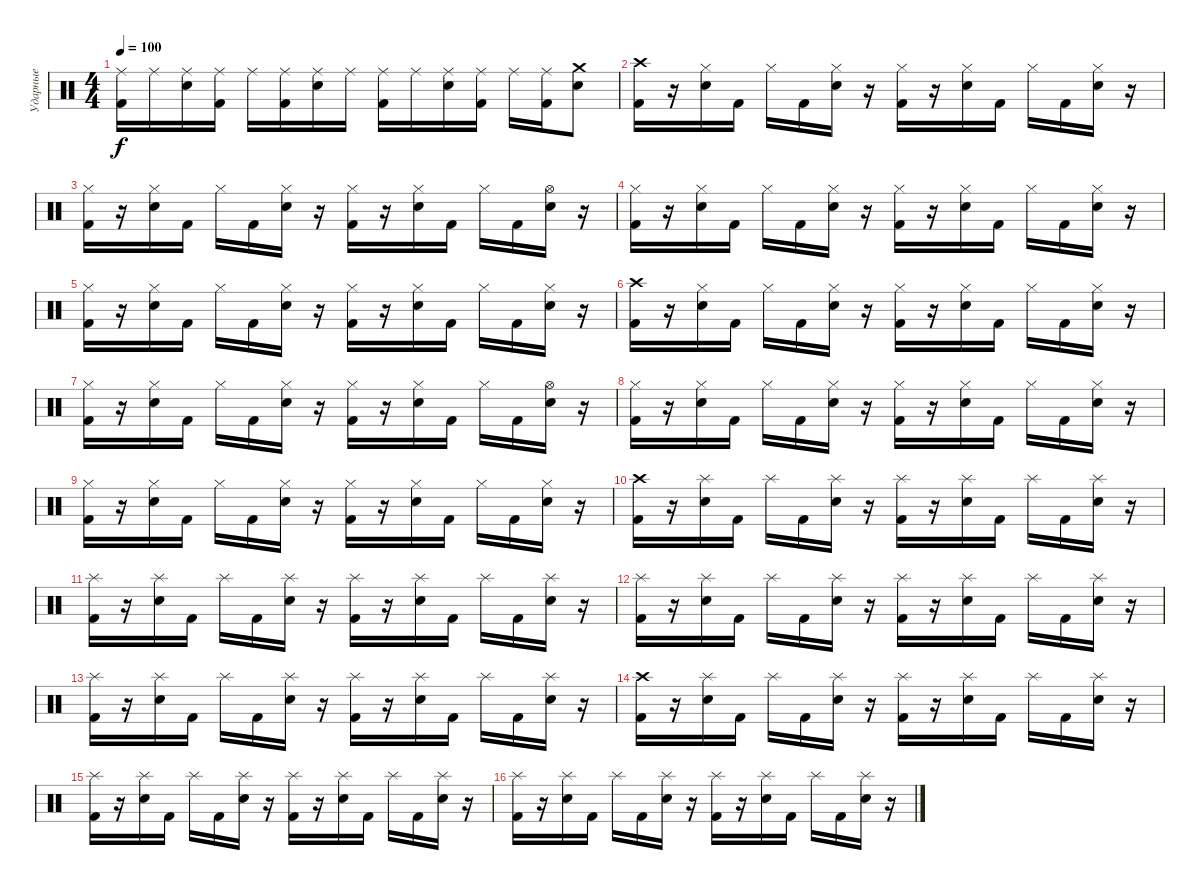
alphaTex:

\track ("Ударные" "Ударные") {instrument percussion}
\staff {score}
\articulation defaults
\ts (4 4)
\tempo 100
\clef neutral
\ks c
("Ride (middle)" "Kick (hit) 2").16{dy f} "Ride (middle)".16 ("Ride (middle)" "Electric Snare (hit)").16 ("Ride (middle)" "Kick (hit) 2").16 "Ride (middle)".16 ("Ride (middle)" "Kick (hit) 2").16 ("Ride (middle)" "Electric Snare (hit)").16 "Ride (middle)".16 ("Ride (middle)" "Kick (hit) 2").16 "Ride (middle)".16 ("Ride (middle)" "Electric Snare (hit)").16 ("Ride (middle)" "Kick (hit) 2").16 "Ride (middle)".16 ("Ride (middle)" "Kick (hit) 2").16 ("Crash medium (hit)" "Electric Snare (hit)").8 |
("Crash high (hit)" "Kick (hit) 2").16 r.16 ("Hi-Hat (closed)" "Electric Snare (hit)").16 "Kick (hit) 2".16 "Hi-Hat (closed)".16 "Kick (hit) 2".16 ("Hi-Hat (closed)" "Electric Snare (hit)").16 r.16 ("Hi-Hat (closed)" "Kick (hit) 2").16 r.16 ("Hi-Hat (closed)" "Electric Snare (hit)").16 "Kick (hit) 2".16 "Hi-Hat (closed)".16 "Kick (hit) 2".16 ("Hi-Hat (closed)" "Electric Snare (hit)").16 r.16 |
("Hi-Hat (closed)" "Kick (hit) 2").16 r.16 ("Hi-Hat (closed)" "Electric Snare (hit)").16 "Kick (hit) 2".16 "Hi-Hat (closed)".16 "Kick (hit) 2".16 ("Hi-Hat (closed)" "Electric Snare (hit)").16 r.16 ("Hi-Hat (closed)" "Kick (hit) 2").16 r.16 ("Hi-Hat (closed)" "Electric Snare (hit)").16 "Kick (hit) 2".16 "Hi-Hat (closed)".16 "Kick (hit) 2".16 ("Hi-Hat (open)" "Electric Snare (hit)").16 r.16 |
("Hi-Hat (closed)" "Kick (hit) 2").16 r.16 ("Hi-Hat (closed)" "Electric Snare (hit)").16 "Kick (hit) 2".16 "Hi-Hat (closed)".16 "Kick (hit) 2".16 ("Hi-Hat (closed)" "Electric Snare (hit)").16 r.16 ("Hi-Hat (closed)" "Kick (hit) 2").16 r.16 ("Hi-Hat (closed)" "Electric Snare (hit)").16 "Kick (hit) 2".16 "Hi-Hat (closed)".16 "Kick (hit) 2".16 ("Hi-Hat (closed)" "Electric Snare (hit)").16 r.16 |
("Hi-Hat (closed)" "Kick (hit) 2").16 r.16 ("Hi-Hat (closed)" "Electric Snare (hit)").16 "Kick (hit) 2".16 "Hi-Hat (closed)".16 "Kick (hit) 2".16 ("Hi-Hat (closed)" "Electric Snare (hit)").16 r.16 ("Hi-Hat (closed)" "Kick (hit) 2").16 r.16 ("Hi-Hat (closed)" "Electric Snare (hit)").16 "Kick (hit) 2".16 "Hi-Hat (closed)".16 "Kick (hit) 2".16 ("Hi-Hat (closed)" "Electric Snare (hit)").16 r.16 |
("Crash high (hit)" "Kick (hit) 2").16 r.16 ("Hi-Hat (closed)" "Electric Snare (hit)").16 "Kick (hit) 2".16 "Hi-Hat (closed)".16 "Kick (hit) 2".16 ("Hi-Hat (closed)" "Electric Snare (hit)").16 r.16 ("Hi-Hat (closed)" "Kick (hit) 2").16 r.16 ("Hi-Hat (closed)" "Electric Snare (hit)").16 "Kick (hit) 2".16 "Hi-Hat (closed)".16 "Kick (hit) 2".16 ("Hi-Hat (closed)" "Electric Snare (hit)").16 r.16 |
("Hi-Hat (closed)" "Kick (hit) 2").16 r.16 ("Hi-Hat (closed)" "Electric Snare (hit)").16 "Kick (hit) 2".16 "Hi-Hat (closed)".16 "Kick (hit) 2".16 ("Hi-Hat (closed)" "Electric Snare (hit)").16 r.16 ("Hi-Hat (closed)" "Kick (hit) 2").16 r.16 ("Hi-Hat (closed)" "Electric Snare (hit)").16 "Kick (hit) 2".16 "Hi-Hat (closed)".16 "Kick (hit) 2".16 ("Hi-Hat (open)" "Electric Snare (hit)").16 r.16 |
("Hi-Hat (closed)" "Kick (hit) 2").16 r.16 ("Hi-Hat (closed)" "Electric Snare (hit)").16 "Kick (hit) 2".16 "Hi-Hat (closed)".16 "Kick (hit) 2".16 ("Hi-Hat (closed)" "Electric Snare (hit)").16 r.16 ("Hi-Hat (closed)" "Kick (hit) 2").16 r.16 ("Hi-Hat (closed)" "Electric Snare (hit)").16 "Kick (hit) 2".16 "Hi-Hat (closed)".16 "Kick (hit) 2".16 ("Hi-Hat (closed)" "Electric Snare (hit)").16 r.16 |
("Hi-Hat (closed)" "Kick (hit) 2").16 r.16 ("Hi-Hat (closed)" "Electric Snare (hit)").16 "Kick (hit) 2".16 "Hi-Hat (closed)".16 "Kick (hit) 2".16 ("Hi-Hat (closed)" "Electric Snare (hit)").16 r.16 ("Hi-Hat (closed)" "Kick (hit) 2").16 r.16 ("Hi-Hat (closed)" "Electric Snare (hit)").16 "Kick (hit) 2".16 "Hi-Hat (closed)".16 "Kick (hit) 2".16 ("Hi-Hat (closed)" "Electric Snare (hit)").16 r.16 |
("Crash high (hit)" "Kick (hit) 2").16 r.16 ("Splash (hit)" "Electric Snare (hit)").16 "Kick (hit) 2".16 "Splash (hit)".16 "Kick (hit) 2".16 ("Splash (hit)" "Electric Snare (hit)").16 r.16 ("Splash (hit)" "Kick (hit) 2").16 r.16 ("Splash (hit)" "Electric Snare (hit)").16 "Kick (hit) 2".16 "Splash (hit)".16 "Kick (hit) 2".16 ("Splash (hit)" "Electric Snare (hit)").16 r.16 |
("Splash (hit)" "Kick (hit) 2").16 r.16 ("Splash (hit)" "Electric Snare (hit)").16 "Kick (hit) 2".16 "Splash (hit)".16 "Kick (hit) 2".16 ("Splash (hit)" "Electric Snare (hit)").16 r.16 ("Splash (hit)" "Kick (hit) 2").16 r.16 ("Splash (hit)" "Electric Snare (hit)").16 "Kick (hit) 2".16 "Splash (hit)".16 "Kick (hit) 2".16 ("Splash (hit)" "Electric Snare (hit)").16 r.16 |
("Splash (hit)" "Kick (hit) 2").16 r.16 ("Splash (hit)" "Electric Snare (hit)").16 "Kick (hit) 2".16 "Splash (hit)".16 "Kick (hit) 2".16 ("Splash (hit)" "Electric Snare (hit)").16 r.16 ("Splash (hit)" "Kick (hit) 2").16 r.16 ("Splash (hit)" "Electric Snare (hit)").16 "Kick (hit) 2".16 "Splash (hit)".16 "Kick (hit) 2".16 ("Splash (hit)" "Electric Snare (hit)").16 r.16 |
("Splash (hit)" "Kick (hit) 2").16 r.16 ("Splash (hit)" "Electric Snare (hit)").16 "Kick (hit) 2".16 "Splash (hit)".16 "Kick (hit) 2".16 ("Splash (hit)" "Electric Snare (hit)").16 r.16 ("Splash (hit)" "Kick (hit) 2").16 r.16 ("Splash (hit)" "Electric Snare (hit)").16 "Kick (hit) 2".16 "Splash (hit)".16 "Kick (hit) 2".16 ("Splash (hit)" "Electric Snare (hit)").16 r.16 |
("Crash high (hit)" "Kick (hit) 2").16 r.16 ("Splash (hit)" "Electric Snare (hit)").16 "Kick (hit) 2".16 "Splash (hit)".16 "Kick (hit) 2".16 ("Splash (hit)" "Electric Snare (hit)").16 r.16 ("Splash (hit)" "Kick (hit) 2").16 r.16 ("Splash (hit)" "Electric Snare (hit)").16 "Kick (hit) 2".16 "Splash (hit)".16 "Kick (hit) 2".16 ("Splash (hit)" "Electric Snare (hit)").16 r.16 |
("Splash (hit)" "Kick (hit) 2").16 r.16 ("Splash (hit)" "Electric Snare (hit)").16 "Kick (hit) 2".16 "Splash (hit)".16 "Kick (hit) 2".16 ("Splash (hit)" "Electric Snare (hit)").16 r.16 ("Splash (hit)" "Kick (hit) 2").16 r.16 ("Splash (hit)" "Electric Snare (hit)").16 "Kick (hit) 2".16 "Splash (hit)".16 "Kick (hit) 2".16 ("Splash (hit)" "Electric Snare (hit)").16 r.16 |
("Splash (hit)" "Kick (hit) 2").16 r.16 ("Splash (hit)" "Electric Snare (hit)").16 "Kick (hit) 2".16 "Splash (hit)".16 "Kick (hit) 2".16 ("Splash (hit)" "Electric Snare (hit)").16 r.16 ("Splash (hit)" "Kick (hit) 2").16 r.16 ("Splash (hit)" "Electric Snare (hit)").16 "Kick (hit) 2".16 "Splash (hit)".16 "Kick (hit) 2".16 ("Splash (hit)" "Electric Snare (hit)").16 r.16
